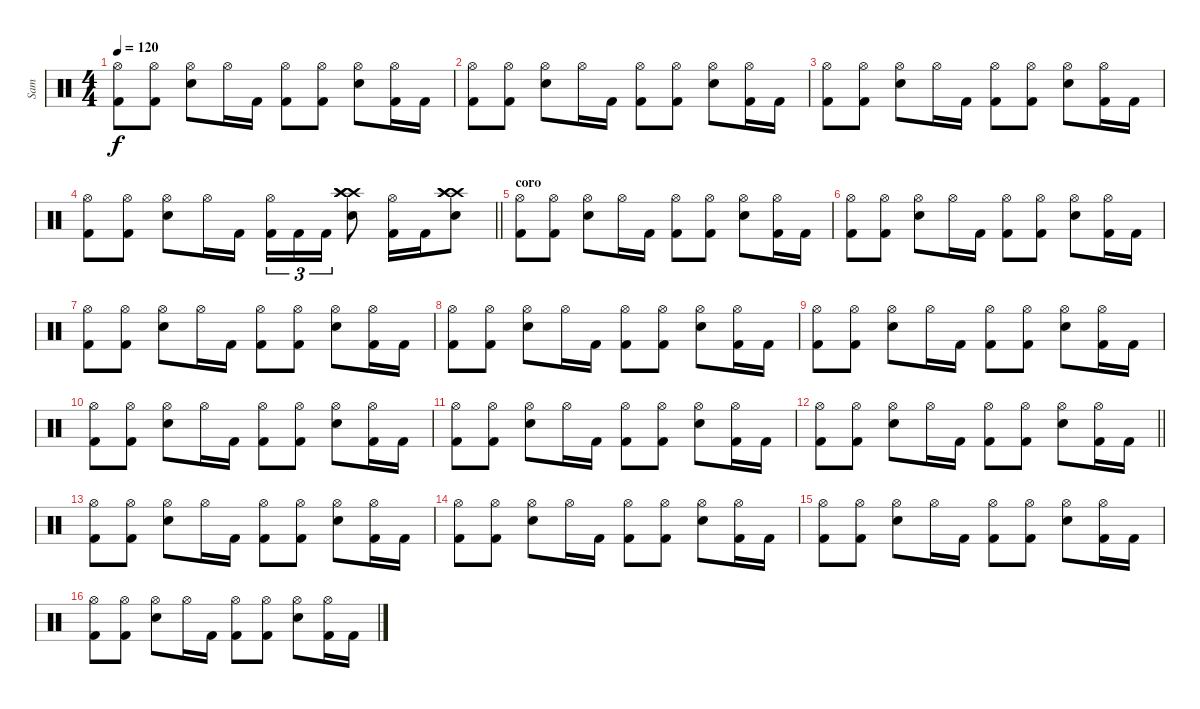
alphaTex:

\track ("Sam" "Sam") {instrument percussion}
\staff {score}
\articulation defaults
\ts (4 4)
\tempo 120
\clef neutral
\ks c
("Hi-Hat (open)" "Kick (hit) 2").8{dy f} ("Hi-Hat (open)" "Kick (hit) 2").8 ("Hi-Hat (open)" "Electric Snare (hit)").8 "Hi-Hat (open)".16 "Kick (hit) 2".16 ("Hi-Hat (open)" "Kick (hit) 2").8 ("Hi-Hat (open)" "Kick (hit) 2").8 ("Hi-Hat (open)" "Electric Snare (hit)").8 ("Hi-Hat (open)" "Kick (hit) 2").16 "Kick (hit) 2".16 |
("Hi-Hat (open)" "Kick (hit) 2").8 ("Hi-Hat (open)" "Kick (hit) 2").8 ("Hi-Hat (open)" "Electric Snare (hit)").8 "Hi-Hat (open)".16 "Kick (hit) 2".16 ("Hi-Hat (open)" "Kick (hit) 2").8 ("Hi-Hat (open)" "Kick (hit) 2").8 ("Hi-Hat (open)" "Electric Snare (hit)").8 ("Hi-Hat (open)" "Kick (hit) 2").16 "Kick (hit) 2".16 |
("Hi-Hat (open)" "Kick (hit) 2").8 ("Hi-Hat (open)" "Kick (hit) 2").8 ("Hi-Hat (open)" "Electric Snare (hit)").8 "Hi-Hat (open)".16 "Kick (hit) 2".16 ("Hi-Hat (open)" "Kick (hit) 2").8 ("Hi-Hat (open)" "Kick (hit) 2").8 ("Hi-Hat (open)" "Electric Snare (hit)").8 ("Hi-Hat (open)" "Kick (hit) 2").16 "Kick (hit) 2".16 |
\barLineRight lightlight
("Hi-Hat (open)" "Kick (hit) 2").8 ("Hi-Hat (open)" "Kick (hit) 2").8 ("Hi-Hat (open)" "Electric Snare (hit)").8 "Hi-Hat (open)".16 "Kick (hit) 2".16 ("Hi-Hat (open)" "Kick (hit) 2").16{tu (3 2)} "Kick (hit) 2".16{tu (3 2)} "Kick (hit) 2".16{tu (3 2)} ("Crash high (hit)" "Crash high (hit)" "Crash high (hit)" "Electric Snare (hit)").8 ("Hi-Hat (open)" "Kick (hit) 2").16 "Kick (hit) 2".16 ("Crash high (hit)" "Crash high (hit)" "Crash high (hit)" "Electric Snare (hit)").8 |
\section ("" "coro")
("Hi-Hat (open)" "Kick (hit) 2").8 ("Hi-Hat (open)" "Kick (hit) 2").8 ("Hi-Hat (open)" "Electric Snare (hit)").8 "Hi-Hat (open)".16 "Kick (hit) 2".16 ("Hi-Hat (open)" "Kick (hit) 2").8 ("Hi-Hat (open)" "Kick (hit) 2").8 ("Hi-Hat (open)" "Electric Snare (hit)").8 ("Hi-Hat (open)" "Kick (hit) 2").16 "Kick (hit) 2".16 |
("Hi-Hat (open)" "Kick (hit) 2").8 ("Hi-Hat (open)" "Kick (hit) 2").8 ("Hi-Hat (open)" "Electric Snare (hit)").8 "Hi-Hat (open)".16 "Kick (hit) 2".16 ("Hi-Hat (open)" "Kick (hit) 2").8 ("Hi-Hat (open)" "Kick (hit) 2").8 ("Hi-Hat (open)" "Electric Snare (hit)").8 ("Hi-Hat (open)" "Kick (hit) 2").16 "Kick (hit) 2".16 |
("Hi-Hat (open)" "Kick (hit) 2").8 ("Hi-Hat (open)" "Kick (hit) 2").8 ("Hi-Hat (open)" "Electric Snare (hit)").8 "Hi-Hat (open)".16 "Kick (hit) 2".16 ("Hi-Hat (open)" "Kick (hit) 2").8 ("Hi-Hat (open)" "Kick (hit) 2").8 ("Hi-Hat (open)" "Electric Snare (hit)").8 ("Hi-Hat (open)" "Kick (hit) 2").16 "Kick (hit) 2".16 |
("Hi-Hat (open)" "Kick (hit) 2").8 ("Hi-Hat (open)" "Kick (hit) 2").8 ("Hi-Hat (open)" "Electric Snare (hit)").8 "Hi-Hat (open)".16 "Kick (hit) 2".16 ("Hi-Hat (open)" "Kick (hit) 2").8 ("Hi-Hat (open)" "Kick (hit) 2").8 ("Hi-Hat (open)" "Electric Snare (hit)").8 ("Hi-Hat (open)" "Kick (hit) 2").16 "Kick (hit) 2".16 |
("Hi-Hat (open)" "Kick (hit) 2").8 ("Hi-Hat (open)" "Kick (hit) 2").8 ("Hi-Hat (open)" "Electric Snare (hit)").8 "Hi-Hat (open)".16 "Kick (hit) 2".16 ("Hi-Hat (open)" "Kick (hit) 2").8 ("Hi-Hat (open)" "Kick (hit) 2").8 ("Hi-Hat (open)" "Electric Snare (hit)").8 ("Hi-Hat (open)" "Kick (hit) 2").16 "Kick (hit) 2".16 |
("Hi-Hat (open)" "Kick (hit) 2").8 ("Hi-Hat (open)" "Kick (hit) 2").8 ("Hi-Hat (open)" "Electric Snare (hit)").8 "Hi-Hat (open)".16 "Kick (hit) 2".16 ("Hi-Hat (open)" "Kick (hit) 2").8 ("Hi-Hat (open)" "Kick (hit) 2").8 ("Hi-Hat (open)" "Electric Snare (hit)").8 ("Hi-Hat (open)" "Kick (hit) 2").16 "Kick (hit) 2".16 |
("Hi-Hat (open)" "Kick (hit) 2").8 ("Hi-Hat (open)" "Kick (hit) 2").8 ("Hi-Hat (open)" "Electric Snare (hit)").8 "Hi-Hat (open)".16 "Kick (hit) 2".16 ("Hi-Hat (open)" "Kick (hit) 2").8 ("Hi-Hat (open)" "Kick (hit) 2").8 ("Hi-Hat (open)" "Electric Snare (hit)").8 ("Hi-Hat (open)" "Kick (hit) 2").16 "Kick (hit) 2".16 |
\barLineRight lightlight
("Hi-Hat (open)" "Kick (hit) 2").8 ("Hi-Hat (open)" "Kick (hit) 2").8 ("Hi-Hat (open)" "Electric Snare (hit)").8 "Hi-Hat (open)".16 "Kick (hit) 2".16 ("Hi-Hat (open)" "Kick (hit) 2").8 ("Hi-Hat (open)" "Kick (hit) 2").8 ("Hi-Hat (open)" "Electric Snare (hit)").8 ("Hi-Hat (open)" "Kick (hit) 2").16 "Kick (hit) 2".16 |
("Hi-Hat (open)" "Kick (hit) 2").8 ("Hi-Hat (open)" "Kick (hit) 2").8 ("Hi-Hat (open)" "Electric Snare (hit)").8 "Hi-Hat (open)".16 "Kick (hit) 2".16 ("Hi-Hat (open)" "Kick (hit) 2").8 ("Hi-Hat (open)" "Kick (hit) 2").8 ("Hi-Hat (open)" "Electric Snare (hit)").8 ("Hi-Hat (open)" "Kick (hit) 2").16 "Kick (hit) 2".16 |
("Hi-Hat (open)" "Kick (hit) 2").8 ("Hi-Hat (open)" "Kick (hit) 2").8 ("Hi-Hat (open)" "Electric Snare (hit)").8 "Hi-Hat (open)".16 "Kick (hit) 2".16 ("Hi-Hat (open)" "Kick (hit) 2").8 ("Hi-Hat (open)" "Kick (hit) 2").8 ("Hi-Hat (open)" "Electric Snare (hit)").8 ("Hi-Hat (open)" "Kick (hit) 2").16 "Kick (hit) 2".16 |
("Hi-Hat (open)" "Kick (hit) 2").8 ("Hi-Hat (open)" "Kick (hit) 2").8 ("Hi-Hat (open)" "Electric Snare (hit)").8 "Hi-Hat (open)".16 "Kick (hit) 2".16 ("Hi-Hat (open)" "Kick (hit) 2").8 ("Hi-Hat (open)" "Kick (hit) 2").8 ("Hi-Hat (open)" "Electric Snare (hit)").8 ("Hi-Hat (open)" "Kick (hit) 2").16 "Kick (hit) 2".16 |
("Hi-Hat (open)" "Kick (hit) 2").8 ("Hi-Hat (open)" "Kick (hit) 2").8 ("Hi-Hat (open)" "Electric Snare (hit)").8 "Hi-Hat (open)".16 "Kick (hit) 2".16 ("Hi-Hat (open)" "Kick (hit) 2").8 ("Hi-Hat (open)" "Kick (hit) 2").8 ("Hi-Hat (open)" "Electric Snare (hit)").8 ("Hi-Hat (open)" "Kick (hit) 2").16 "Kick (hit) 2".16
